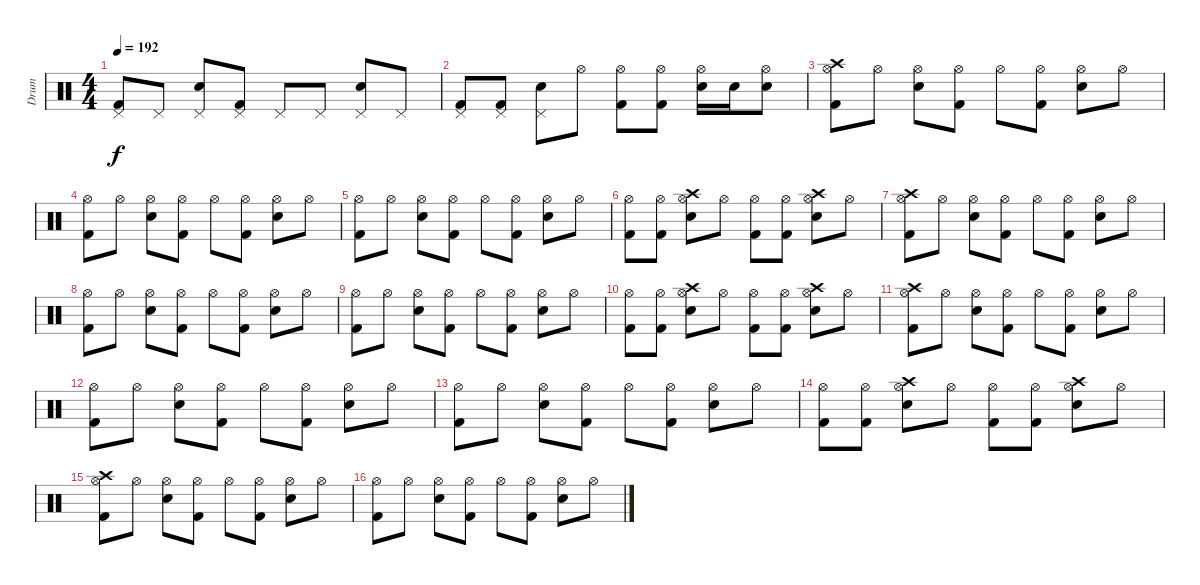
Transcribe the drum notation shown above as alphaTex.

\track ("Drum" "Drum") {instrument percussion}
\staff {score}
\articulation defaults
\ts (4 4)
\tempo 192
\clef neutral
\ks c
("Kick (hit) 2" "Pedal Hi-Hat (hit)").8{dy f} "Pedal Hi-Hat (hit)".8 ("Electric Snare (hit)" "Pedal Hi-Hat (hit)").8 ("Kick (hit) 2" "Pedal Hi-Hat (hit)").8 "Pedal Hi-Hat (hit)".8 "Pedal Hi-Hat (hit)".8 ("Electric Snare (hit)" "Pedal Hi-Hat (hit)").8 "Pedal Hi-Hat (hit)".8 |
("Kick (hit) 2" "Pedal Hi-Hat (hit)").8 ("Kick (hit) 2" "Pedal Hi-Hat (hit)").8 ("Electric Snare (hit)" "Pedal Hi-Hat (hit)").8 "Hi-Hat (open)".8 ("Kick (hit) 2" "Hi-Hat (open)").8 ("Kick (hit) 2" "Hi-Hat (open)").8 ("Electric Snare (hit)" "Hi-Hat (open)").16 "Electric Snare (hit)".16 ("Electric Snare (hit)" "Hi-Hat (open)").8 |
("Crash high (hit)" "Kick (hit) 2" "Hi-Hat (open)").8 "Hi-Hat (open)".8 ("Electric Snare (hit)" "Hi-Hat (open)").8 ("Kick (hit) 2" "Hi-Hat (open)").8 "Hi-Hat (open)".8 ("Kick (hit) 2" "Hi-Hat (open)").8 ("Electric Snare (hit)" "Hi-Hat (open)").8 "Hi-Hat (open)".8 |
("Kick (hit) 2" "Hi-Hat (open)").8 "Hi-Hat (open)".8 ("Electric Snare (hit)" "Hi-Hat (open)").8 ("Kick (hit) 2" "Hi-Hat (open)").8 "Hi-Hat (open)".8 ("Kick (hit) 2" "Hi-Hat (open)").8 ("Electric Snare (hit)" "Hi-Hat (open)").8 "Hi-Hat (open)".8 |
("Kick (hit) 2" "Hi-Hat (open)").8 "Hi-Hat (open)".8 ("Electric Snare (hit)" "Hi-Hat (open)").8 ("Kick (hit) 2" "Hi-Hat (open)").8 "Hi-Hat (open)".8 ("Kick (hit) 2" "Hi-Hat (open)").8 ("Electric Snare (hit)" "Hi-Hat (open)").8 "Hi-Hat (open)".8 |
("Kick (hit) 2" "Hi-Hat (open)").8 ("Kick (hit) 2" "Hi-Hat (open)").8 ("Crash high (hit)" "Electric Snare (hit)" "Hi-Hat (open)").8 "Hi-Hat (open)".8 ("Kick (hit) 2" "Hi-Hat (open)").8 ("Kick (hit) 2" "Hi-Hat (open)").8 ("Crash high (hit)" "Electric Snare (hit)" "Hi-Hat (open)").8 "Hi-Hat (open)".8 |
("Crash high (hit)" "Kick (hit) 2" "Hi-Hat (open)").8 "Hi-Hat (open)".8 ("Electric Snare (hit)" "Hi-Hat (open)").8 ("Kick (hit) 2" "Hi-Hat (open)").8 "Hi-Hat (open)".8 ("Kick (hit) 2" "Hi-Hat (open)").8 ("Electric Snare (hit)" "Hi-Hat (open)").8 "Hi-Hat (open)".8 |
("Kick (hit) 2" "Hi-Hat (open)").8 "Hi-Hat (open)".8 ("Electric Snare (hit)" "Hi-Hat (open)").8 ("Kick (hit) 2" "Hi-Hat (open)").8 "Hi-Hat (open)".8 ("Kick (hit) 2" "Hi-Hat (open)").8 ("Electric Snare (hit)" "Hi-Hat (open)").8 "Hi-Hat (open)".8 |
("Kick (hit) 2" "Hi-Hat (open)").8 "Hi-Hat (open)".8 ("Electric Snare (hit)" "Hi-Hat (open)").8 ("Kick (hit) 2" "Hi-Hat (open)").8 "Hi-Hat (open)".8 ("Kick (hit) 2" "Hi-Hat (open)").8 ("Electric Snare (hit)" "Hi-Hat (open)").8 "Hi-Hat (open)".8 |
("Kick (hit) 2" "Hi-Hat (open)").8 ("Kick (hit) 2" "Hi-Hat (open)").8 ("Crash high (hit)" "Electric Snare (hit)" "Hi-Hat (open)").8 "Hi-Hat (open)".8 ("Kick (hit) 2" "Hi-Hat (open)").8 ("Kick (hit) 2" "Hi-Hat (open)").8 ("Crash high (hit)" "Electric Snare (hit)" "Hi-Hat (open)").8 "Hi-Hat (open)".8 |
("Crash high (hit)" "Kick (hit) 2" "Hi-Hat (open)").8 "Hi-Hat (open)".8 ("Electric Snare (hit)" "Hi-Hat (open)").8 ("Kick (hit) 2" "Hi-Hat (open)").8 "Hi-Hat (open)".8 ("Kick (hit) 2" "Hi-Hat (open)").8 ("Electric Snare (hit)" "Hi-Hat (open)").8 "Hi-Hat (open)".8 |
("Kick (hit) 2" "Hi-Hat (open)").8 "Hi-Hat (open)".8 ("Electric Snare (hit)" "Hi-Hat (open)").8 ("Kick (hit) 2" "Hi-Hat (open)").8 "Hi-Hat (open)".8 ("Kick (hit) 2" "Hi-Hat (open)").8 ("Electric Snare (hit)" "Hi-Hat (open)").8 "Hi-Hat (open)".8 |
("Kick (hit) 2" "Hi-Hat (open)").8 "Hi-Hat (open)".8 ("Electric Snare (hit)" "Hi-Hat (open)").8 ("Kick (hit) 2" "Hi-Hat (open)").8 "Hi-Hat (open)".8 ("Kick (hit) 2" "Hi-Hat (open)").8 ("Electric Snare (hit)" "Hi-Hat (open)").8 "Hi-Hat (open)".8 |
("Kick (hit) 2" "Hi-Hat (open)").8 ("Kick (hit) 2" "Hi-Hat (open)").8 ("Crash high (hit)" "Electric Snare (hit)" "Hi-Hat (open)").8 "Hi-Hat (open)".8 ("Kick (hit) 2" "Hi-Hat (open)").8 ("Kick (hit) 2" "Hi-Hat (open)").8 ("Crash high (hit)" "Electric Snare (hit)" "Hi-Hat (open)").8 "Hi-Hat (open)".8 |
("Crash high (hit)" "Kick (hit) 2" "Hi-Hat (open)").8 "Hi-Hat (open)".8 ("Electric Snare (hit)" "Hi-Hat (open)").8 ("Kick (hit) 2" "Hi-Hat (open)").8 "Hi-Hat (open)".8 ("Kick (hit) 2" "Hi-Hat (open)").8 ("Electric Snare (hit)" "Hi-Hat (open)").8 "Hi-Hat (open)".8 |
("Kick (hit) 2" "Hi-Hat (open)").8 "Hi-Hat (open)".8 ("Electric Snare (hit)" "Hi-Hat (open)").8 ("Kick (hit) 2" "Hi-Hat (open)").8 "Hi-Hat (open)".8 ("Kick (hit) 2" "Hi-Hat (open)").8 ("Electric Snare (hit)" "Hi-Hat (open)").8 "Hi-Hat (open)".8
